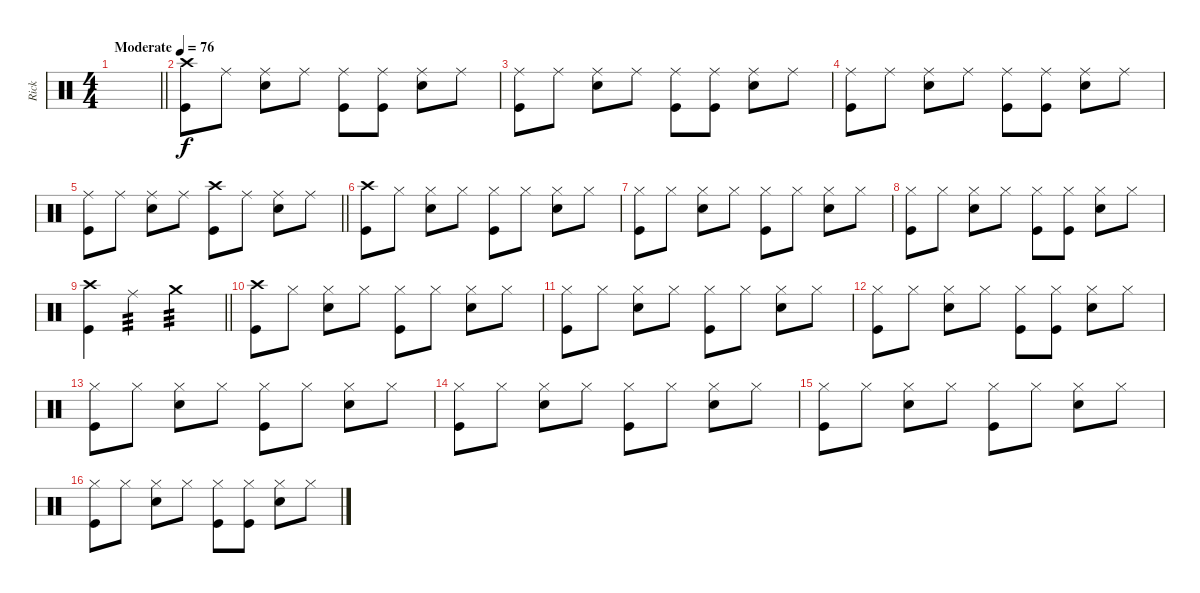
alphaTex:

\track ("Rick" "Rick") {instrument percussion}
\staff {score}
\articulation defaults
\ts (4 4)
\tempo (76 "Moderate")
\clef neutral
\barLineRight lightlight
\ks aminor
|
("Crash high (hit)" "Kick (hit)").8 "Ride (middle)".8 ("Ride (middle)" "Snare (hit) 2").8 "Ride (middle)".8 ("Ride (middle)" "Kick (hit)").8 ("Ride (middle)" "Kick (hit)").8 ("Ride (middle)" "Snare (hit) 2").8 "Ride (middle)".8 |
("Ride (middle)" "Kick (hit)").8 "Ride (middle)".8 ("Ride (middle)" "Snare (hit) 2").8 "Ride (middle)".8 ("Ride (middle)" "Kick (hit)").8 ("Ride (middle)" "Kick (hit)").8 ("Ride (middle)" "Snare (hit) 2").8 "Ride (middle)".8 |
("Ride (middle)" "Kick (hit)").8 "Ride (middle)".8 ("Ride (middle)" "Snare (hit) 2").8 "Ride (middle)".8 ("Ride (middle)" "Kick (hit)").8 ("Ride (middle)" "Kick (hit)").8 ("Ride (middle)" "Snare (hit) 2").8 "Ride (middle)".8 |
\barLineRight lightlight
("Ride (middle)" "Kick (hit)").8 "Ride (middle)".8 ("Ride (middle)" "Snare (hit) 2").8 "Ride (middle)".8 ("Crash high (hit)" "Kick (hit)").8 "Ride (middle)".8 ("Ride (middle)" "Snare (hit) 2").8 "Ride (middle)".8 |
("Crash high (hit)" "Kick (hit)").8 "Hi-Hat (closed)".8 ("Hi-Hat (closed)" "Snare (hit) 2").8 "Hi-Hat (closed)".8 ("Hi-Hat (closed)" "Kick (hit)").8 "Hi-Hat (closed)".8 ("Hi-Hat (closed)" "Snare (hit) 2").8 "Hi-Hat (closed)".8 |
("Hi-Hat (closed)" "Kick (hit)").8 "Hi-Hat (closed)".8 ("Hi-Hat (closed)" "Snare (hit) 2").8 "Hi-Hat (closed)".8 ("Hi-Hat (closed)" "Kick (hit)").8 "Hi-Hat (closed)".8 ("Hi-Hat (closed)" "Snare (hit) 2").8 "Hi-Hat (closed)".8 |
("Hi-Hat (closed)" "Kick (hit)").8 "Hi-Hat (closed)".8 ("Hi-Hat (closed)" "Snare (hit) 2").8 "Hi-Hat (closed)".8 ("Hi-Hat (closed)" "Kick (hit)").8 ("Hi-Hat (closed)" "Kick (hit)").8 ("Hi-Hat (closed)" "Snare (hit) 2").8 "Hi-Hat (closed)".8 |
\barLineRight lightlight
("Crash high (hit)" "Kick (hit)").4 "Ride (middle)".4{tp 3} "Crash medium (hit)".2{tp 3} |
("Crash high (hit)" "Kick (hit)").8 "Hi-Hat (closed)".8 ("Hi-Hat (closed)" "Snare (hit) 2").8 "Hi-Hat (closed)".8 ("Hi-Hat (closed)" "Kick (hit)").8 "Hi-Hat (closed)".8 ("Hi-Hat (closed)" "Snare (hit) 2").8 "Hi-Hat (closed)".8 |
("Hi-Hat (closed)" "Kick (hit)").8 "Hi-Hat (closed)".8 ("Hi-Hat (closed)" "Snare (hit) 2").8 "Hi-Hat (closed)".8 ("Hi-Hat (closed)" "Kick (hit)").8 "Hi-Hat (closed)".8 ("Hi-Hat (closed)" "Snare (hit) 2").8 "Hi-Hat (closed)".8 |
("Hi-Hat (closed)" "Kick (hit)").8 "Hi-Hat (closed)".8 ("Hi-Hat (closed)" "Snare (hit) 2").8 "Hi-Hat (closed)".8 ("Hi-Hat (closed)" "Kick (hit)").8 ("Hi-Hat (closed)" "Kick (hit)").8 ("Hi-Hat (closed)" "Snare (hit) 2").8 "Hi-Hat (closed)".8 |
("Hi-Hat (closed)" "Kick (hit)").8 "Hi-Hat (closed)".8 ("Hi-Hat (closed)" "Snare (hit) 2").8 "Hi-Hat (closed)".8 ("Hi-Hat (closed)" "Kick (hit)").8 "Hi-Hat (closed)".8 ("Hi-Hat (closed)" "Snare (hit) 2").8 "Hi-Hat (closed)".8 |
("Hi-Hat (closed)" "Kick (hit)").8 "Hi-Hat (closed)".8 ("Hi-Hat (closed)" "Snare (hit) 2").8 "Hi-Hat (closed)".8 ("Hi-Hat (closed)" "Kick (hit)").8 "Hi-Hat (closed)".8 ("Hi-Hat (closed)" "Snare (hit) 2").8 "Hi-Hat (closed)".8 |
("Hi-Hat (closed)" "Kick (hit)").8 "Hi-Hat (closed)".8 ("Hi-Hat (closed)" "Snare (hit) 2").8 "Hi-Hat (closed)".8 ("Hi-Hat (closed)" "Kick (hit)").8 "Hi-Hat (closed)".8 ("Hi-Hat (closed)" "Snare (hit) 2").8 "Hi-Hat (closed)".8 |
("Hi-Hat (closed)" "Kick (hit)").8 "Hi-Hat (closed)".8 ("Hi-Hat (closed)" "Snare (hit) 2").8 "Hi-Hat (closed)".8 ("Hi-Hat (closed)" "Kick (hit)").8 ("Hi-Hat (closed)" "Kick (hit)").8 ("Hi-Hat (closed)" "Snare (hit) 2").8 "Hi-Hat (closed)".8
